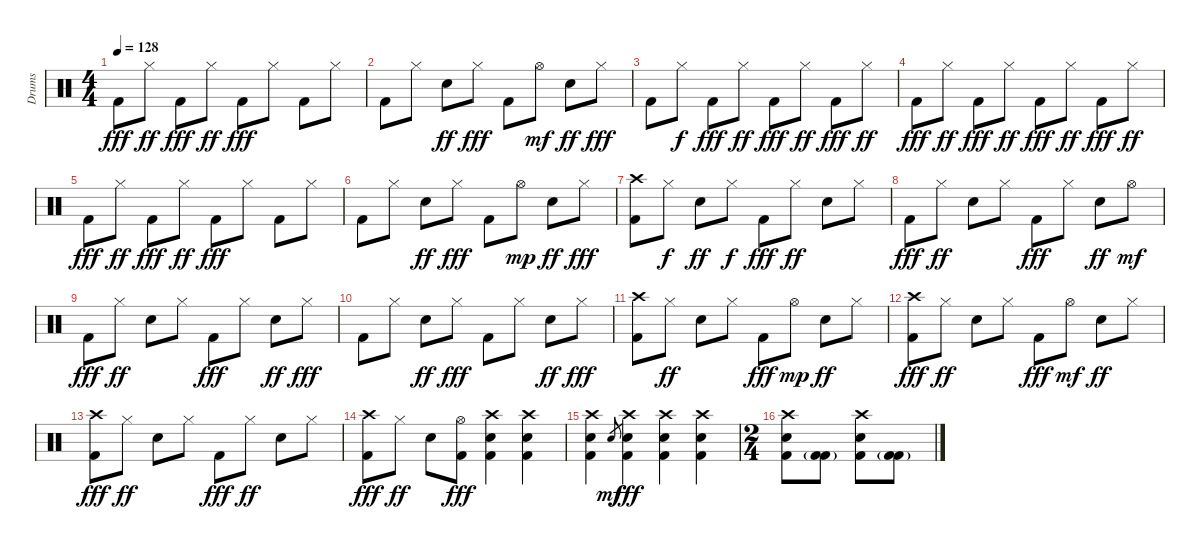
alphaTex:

\track ("Drums" "Drums") {instrument percussion}
\staff {score}
\articulation defaults
\ts (4 4)
\tempo 128
\clef neutral
\ks c "Kick (hit) 2".8{dy fff} "Hi-Hat (closed)".8{dy ff} "Kick (hit) 2".8{dy fff} "Hi-Hat (closed)".8{dy ff} "Kick (hit) 2".8{dy fff} "Hi-Hat (closed)".8 "Kick (hit) 2".8 "Hi-Hat (closed)".8
|
"Kick (hit) 2".8 "Hi-Hat (closed)".8 "Electric Snare (hit)".8{dy ff} "Hi-Hat (closed)".8{dy fff} "Kick (hit) 2".8 "Hi-Hat (open)".8{dy mf} "Electric Snare (hit)".8{dy ff} "Hi-Hat (closed)".8{dy fff} |
"Kick (hit) 2".8 "Hi-Hat (closed)".8{dy f} "Kick (hit) 2".8{dy fff} "Hi-Hat (closed)".8{dy ff} "Kick (hit) 2".8{dy fff} "Hi-Hat (closed)".8{dy ff} "Kick (hit) 2".8{dy fff} "Hi-Hat (closed)".8{dy ff} |
"Kick (hit) 2".8{dy fff} "Hi-Hat (closed)".8{dy ff} "Kick (hit) 2".8{dy fff} "Hi-Hat (closed)".8{dy ff} "Kick (hit) 2".8{dy fff} "Hi-Hat (closed)".8{dy ff} "Kick (hit) 2".8{dy fff} "Hi-Hat (closed)".8{dy ff} |
"Kick (hit) 2".8{dy fff} "Hi-Hat (closed)".8{dy ff} "Kick (hit) 2".8{dy fff} "Hi-Hat (closed)".8{dy ff} "Kick (hit) 2".8{dy fff} "Hi-Hat (closed)".8 "Kick (hit) 2".8 "Hi-Hat (closed)".8 |
"Kick (hit) 2".8 "Hi-Hat (closed)".8 "Electric Snare (hit)".8{dy ff} "Hi-Hat (closed)".8{dy fff} "Kick (hit) 2".8 "Hi-Hat (open)".8{dy mp} "Electric Snare (hit)".8{dy ff} "Hi-Hat (closed)".8{dy fff} |
("Crash high (hit)" "Kick (hit) 2").8 "Hi-Hat (closed)".8{dy f} "Electric Snare (hit)".8{dy ff} "Hi-Hat (closed)".8{dy f} "Kick (hit) 2".8{dy fff} "Hi-Hat (closed)".8{dy ff} "Electric Snare (hit)".8 "Hi-Hat (closed)".8 |
"Kick (hit) 2".8{dy fff} "Hi-Hat (closed)".8{dy ff} "Electric Snare (hit)".8 "Hi-Hat (closed)".8 "Kick (hit) 2".8{dy fff} "Hi-Hat (closed)".8 "Electric Snare (hit)".8{dy ff} "Hi-Hat (open)".8{dy mf} |
"Kick (hit) 2".8{dy fff} "Hi-Hat (closed)".8{dy ff} "Electric Snare (hit)".8 "Hi-Hat (closed)".8 "Kick (hit) 2".8{dy fff} "Hi-Hat (closed)".8 "Electric Snare (hit)".8{dy ff} "Hi-Hat (closed)".8{dy fff} |
"Kick (hit) 2".8 "Hi-Hat (closed)".8 "Electric Snare (hit)".8{dy ff} "Hi-Hat (closed)".8{dy fff} "Kick (hit) 2".8 "Hi-Hat (closed)".8 "Electric Snare (hit)".8{dy ff} "Hi-Hat (closed)".8{dy fff} |
("Crash high (hit)" "Kick (hit) 2").8 "Hi-Hat (closed)".8{dy ff} "Electric Snare (hit)".8 "Hi-Hat (closed)".8 "Kick (hit) 2".8{dy fff} "Hi-Hat (open)".8{dy mp} "Electric Snare (hit)".8{dy ff} "Hi-Hat (closed)".8 |
("Crash high (hit)" "Kick (hit) 2").8{dy fff} "Hi-Hat (closed)".8{dy ff} "Electric Snare (hit)".8 "Hi-Hat (closed)".8 "Kick (hit) 2".8{dy fff} "Hi-Hat (open)".8{dy mf} "Electric Snare (hit)".8{dy ff} "Hi-Hat (closed)".8 |
("Crash high (hit)" "Kick (hit) 2").8{dy fff} "Hi-Hat (closed)".8{dy ff} "Electric Snare (hit)".8 "Hi-Hat (closed)".8 "Kick (hit) 2".8{dy fff} "Hi-Hat (closed)".8{dy ff} "Electric Snare (hit)".8 "Hi-Hat (closed)".8 |
("Crash high (hit)" "Kick (hit) 2").8{dy fff} "Hi-Hat (closed)".8{dy ff} "Electric Snare (hit)".8 ("Hi-Hat (open)" "Kick (hit) 2").8{dy fff} ("Crash high (hit)" "Electric Snare (hit)" "Kick (hit) 2").4 ("Crash high (hit)" "Electric Snare (hit)" "Kick (hit) 2").4 |
("Crash high (hit)" "Electric Snare (hit)" "Kick (hit) 2").4 "Electric Snare (hit)".8{gr dy mf} ("Crash high (hit)" "Electric Snare (hit)" "Kick (hit) 2").4{dy fff} ("Crash high (hit)" "Electric Snare (hit)" "Kick (hit) 2").4 ("Crash high (hit)" "Electric Snare (hit)" "Kick (hit) 2").4 |
\ts (2 4)
("Crash high (hit)" "Electric Snare (hit)" "Kick (hit) 2").8 ("Kick (hit) 2"{g} "Kick (hit) 2").8 ("Crash high (hit)" "Electric Snare (hit)" "Kick (hit) 2").8 ("Kick (hit) 2"{g} "Kick (hit) 2").8
